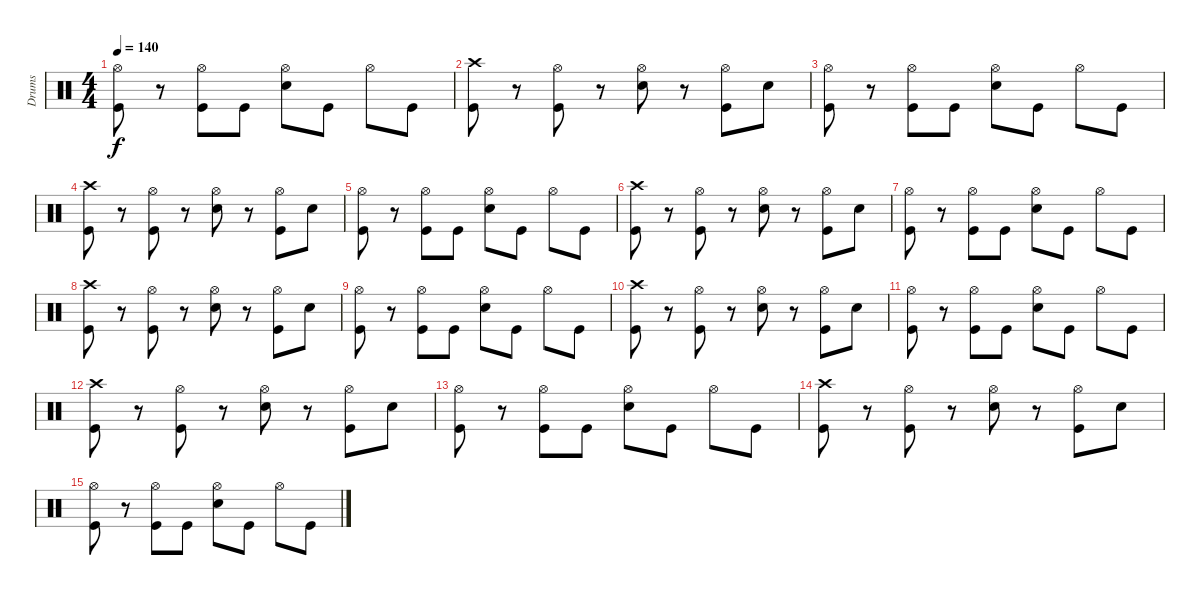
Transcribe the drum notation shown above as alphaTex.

\track ("Drums" "Drums") {instrument percussion}
\staff {score}
\articulation defaults
\ts (4 4)
\tempo 140
\clef neutral
\ks c
("Hi-Hat (open)" "Kick (hit)").8{dy f} r.8 ("Hi-Hat (open)" "Kick (hit)").8 "Kick (hit)".8 ("Hi-Hat (open)" "Snare (hit) 2").8 "Kick (hit)".8 "Hi-Hat (open)".8 "Kick (hit)".8 |
("Crash high (hit)" "Kick (hit)").8 r.8 ("Hi-Hat (open)" "Kick (hit)").8 r.8 ("Hi-Hat (open)" "Snare (hit) 2").8 r.8 ("Hi-Hat (open)" "Kick (hit)").8 "Snare (hit) 2".8 |
("Hi-Hat (open)" "Kick (hit)").8 r.8 ("Hi-Hat (open)" "Kick (hit)").8 "Kick (hit)".8 ("Hi-Hat (open)" "Snare (hit) 2").8 "Kick (hit)".8 "Hi-Hat (open)".8 "Kick (hit)".8 |
("Crash high (hit)" "Kick (hit)").8 r.8 ("Hi-Hat (open)" "Kick (hit)").8 r.8 ("Hi-Hat (open)" "Snare (hit) 2").8 r.8 ("Hi-Hat (open)" "Kick (hit)").8 "Snare (hit) 2".8 |
("Hi-Hat (open)" "Kick (hit)").8 r.8 ("Hi-Hat (open)" "Kick (hit)").8 "Kick (hit)".8 ("Hi-Hat (open)" "Snare (hit) 2").8 "Kick (hit)".8 "Hi-Hat (open)".8 "Kick (hit)".8 |
("Crash high (hit)" "Kick (hit)").8 r.8 ("Hi-Hat (open)" "Kick (hit)").8 r.8 ("Hi-Hat (open)" "Snare (hit) 2").8 r.8 ("Hi-Hat (open)" "Kick (hit)").8 "Snare (hit) 2".8 |
("Hi-Hat (open)" "Kick (hit)").8 r.8 ("Hi-Hat (open)" "Kick (hit)").8 "Kick (hit)".8 ("Hi-Hat (open)" "Snare (hit) 2").8 "Kick (hit)".8 "Hi-Hat (open)".8 "Kick (hit)".8 |
("Crash high (hit)" "Kick (hit)").8 r.8 ("Hi-Hat (open)" "Kick (hit)").8 r.8 ("Hi-Hat (open)" "Snare (hit) 2").8 r.8 ("Hi-Hat (open)" "Kick (hit)").8 "Snare (hit) 2".8 |
("Hi-Hat (open)" "Kick (hit)").8 r.8 ("Hi-Hat (open)" "Kick (hit)").8 "Kick (hit)".8 ("Hi-Hat (open)" "Snare (hit) 2").8 "Kick (hit)".8 "Hi-Hat (open)".8 "Kick (hit)".8 |
("Crash high (hit)" "Kick (hit)").8 r.8 ("Hi-Hat (open)" "Kick (hit)").8 r.8 ("Hi-Hat (open)" "Snare (hit) 2").8 r.8 ("Hi-Hat (open)" "Kick (hit)").8 "Snare (hit) 2".8 |
("Hi-Hat (open)" "Kick (hit)").8 r.8 ("Hi-Hat (open)" "Kick (hit)").8 "Kick (hit)".8 ("Hi-Hat (open)" "Snare (hit) 2").8 "Kick (hit)".8 "Hi-Hat (open)".8 "Kick (hit)".8 |
("Crash high (hit)" "Kick (hit)").8 r.8 ("Hi-Hat (open)" "Kick (hit)").8 r.8 ("Hi-Hat (open)" "Snare (hit) 2").8 r.8 ("Hi-Hat (open)" "Kick (hit)").8 "Snare (hit) 2".8 |
("Hi-Hat (open)" "Kick (hit)").8 r.8 ("Hi-Hat (open)" "Kick (hit)").8 "Kick (hit)".8 ("Hi-Hat (open)" "Snare (hit) 2").8 "Kick (hit)".8 "Hi-Hat (open)".8 "Kick (hit)".8 |
("Crash high (hit)" "Kick (hit)").8 r.8 ("Hi-Hat (open)" "Kick (hit)").8 r.8 ("Hi-Hat (open)" "Snare (hit) 2").8 r.8 ("Hi-Hat (open)" "Kick (hit)").8 "Snare (hit) 2".8 |
("Hi-Hat (open)" "Kick (hit)").8 r.8 ("Hi-Hat (open)" "Kick (hit)").8 "Kick (hit)".8 ("Hi-Hat (open)" "Snare (hit) 2").8 "Kick (hit)".8 "Hi-Hat (open)".8 "Kick (hit)".8
